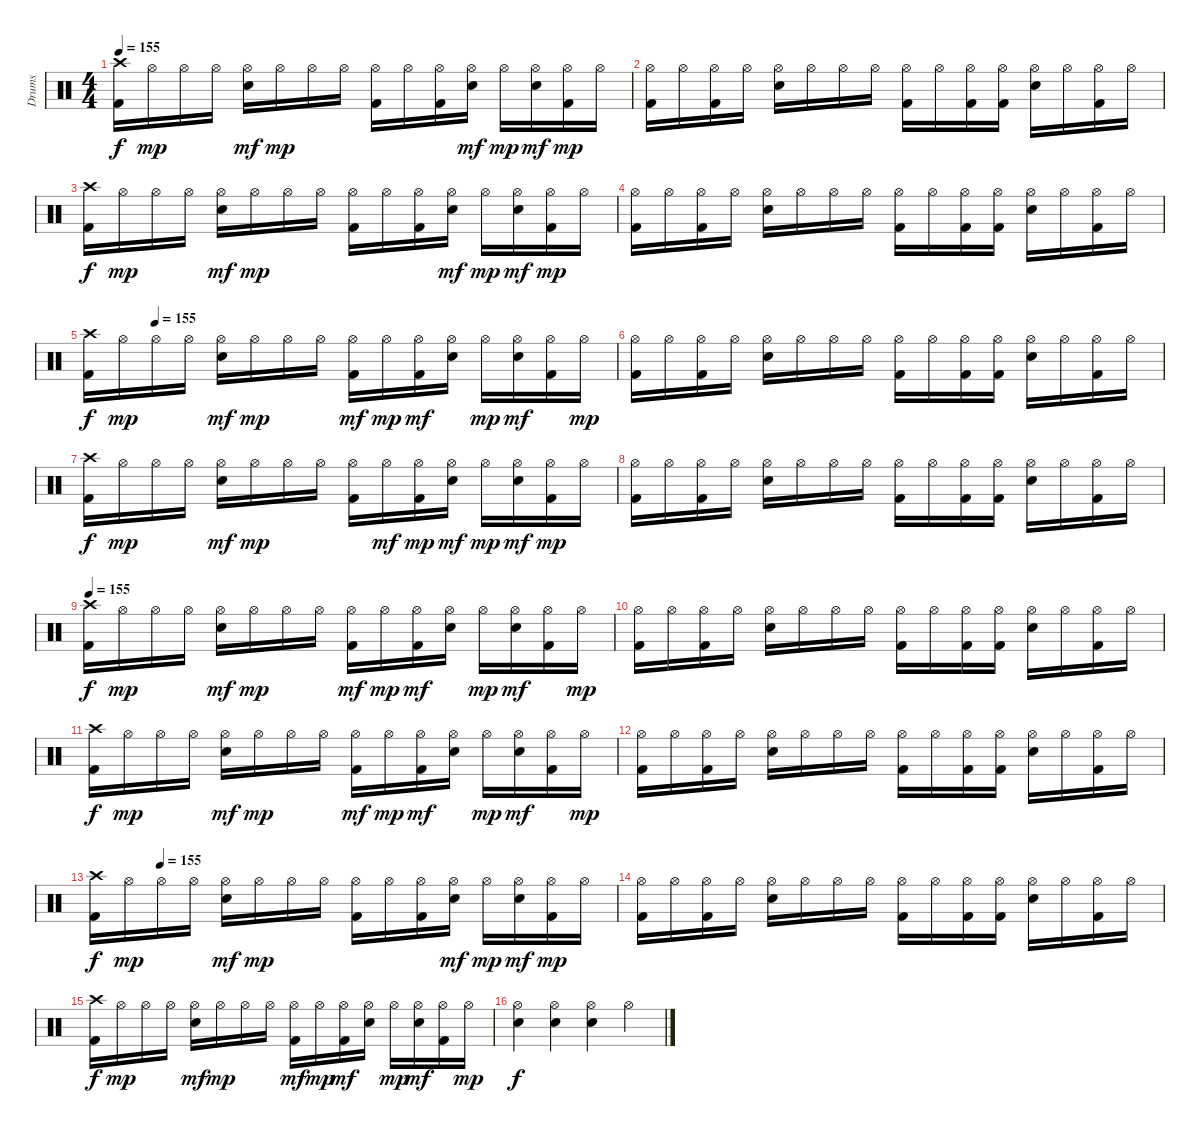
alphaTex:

\track ("Drums" "Drums") {instrument percussion}
\staff {score}
\articulation defaults
\ts (4 4)
\tempo 155
\clef neutral
\ks c
("Crash high (hit)" "Kick (hit) 2").16{dy f} "Hi-Hat (open)".16{dy mp} "Hi-Hat (open)".16 "Hi-Hat (open)".16 ("Hi-Hat (open)" "Electric Snare (hit)").16{dy mf} "Hi-Hat (open)".16{dy mp} "Hi-Hat (open)".16 "Hi-Hat (open)".16 ("Hi-Hat (open)" "Kick (hit) 2").16 "Hi-Hat (open)".16 ("Hi-Hat (open)" "Kick (hit) 2").16 ("Hi-Hat (open)" "Electric Snare (hit)").16{dy mf} "Hi-Hat (open)".16{dy mp} ("Hi-Hat (open)" "Electric Snare (hit)").16{dy mf} ("Hi-Hat (open)" "Kick (hit) 2").16{dy mp} "Hi-Hat (open)".16 |
("Hi-Hat (open)" "Kick (hit) 2").16 "Hi-Hat (open)".16 ("Hi-Hat (open)" "Kick (hit) 2").16 "Hi-Hat (open)".16 ("Hi-Hat (open)" "Electric Snare (hit)").16 "Hi-Hat (open)".16 "Hi-Hat (open)".16 "Hi-Hat (open)".16 ("Hi-Hat (open)" "Kick (hit) 2").16 "Hi-Hat (open)".16 ("Hi-Hat (open)" "Kick (hit) 2").16 ("Hi-Hat (open)" "Kick (hit) 2").16 ("Hi-Hat (open)" "Electric Snare (hit)").16 "Hi-Hat (open)".16 ("Hi-Hat (open)" "Kick (hit) 2").16 "Hi-Hat (open)".16 |
("Crash high (hit)" "Kick (hit) 2").16{dy f} "Hi-Hat (open)".16{dy mp} "Hi-Hat (open)".16 "Hi-Hat (open)".16 ("Hi-Hat (open)" "Electric Snare (hit)").16{dy mf} "Hi-Hat (open)".16{dy mp} "Hi-Hat (open)".16 "Hi-Hat (open)".16 ("Hi-Hat (open)" "Kick (hit) 2").16 "Hi-Hat (open)".16 ("Hi-Hat (open)" "Kick (hit) 2").16 ("Hi-Hat (open)" "Electric Snare (hit)").16{dy mf} "Hi-Hat (open)".16{dy mp} ("Hi-Hat (open)" "Electric Snare (hit)").16{dy mf} ("Hi-Hat (open)" "Kick (hit) 2").16{dy mp} "Hi-Hat (open)".16 |
("Hi-Hat (open)" "Kick (hit) 2").16 "Hi-Hat (open)".16 ("Hi-Hat (open)" "Kick (hit) 2").16 "Hi-Hat (open)".16 ("Hi-Hat (open)" "Electric Snare (hit)").16 "Hi-Hat (open)".16 "Hi-Hat (open)".16 "Hi-Hat (open)".16 ("Hi-Hat (open)" "Kick (hit) 2").16 "Hi-Hat (open)".16 ("Hi-Hat (open)" "Kick (hit) 2").16 ("Hi-Hat (open)" "Kick (hit) 2").16 ("Hi-Hat (open)" "Electric Snare (hit)").16 "Hi-Hat (open)".16 ("Hi-Hat (open)" "Kick (hit) 2").16 "Hi-Hat (open)".16 |
\tempo (155 0.125)
("Crash high (hit)" "Kick (hit) 2").16{dy f} "Hi-Hat (open)".16{dy mp} "Hi-Hat (open)".16 "Hi-Hat (open)".16 ("Hi-Hat (open)" "Electric Snare (hit)").16{dy mf} "Hi-Hat (open)".16{dy mp} "Hi-Hat (open)".16 "Hi-Hat (open)".16 ("Hi-Hat (open)" "Kick (hit) 2").16{dy mf} "Hi-Hat (open)".16{dy mp} ("Hi-Hat (open)" "Kick (hit) 2").16{dy mf} ("Hi-Hat (open)" "Electric Snare (hit)").16 "Hi-Hat (open)".16{dy mp} ("Hi-Hat (open)" "Electric Snare (hit)").16{dy mf} ("Hi-Hat (open)" "Kick (hit) 2").16 "Hi-Hat (open)".16{dy mp} |
("Hi-Hat (open)" "Kick (hit) 2").16 "Hi-Hat (open)".16 ("Hi-Hat (open)" "Kick (hit) 2").16 "Hi-Hat (open)".16 ("Hi-Hat (open)" "Electric Snare (hit)").16 "Hi-Hat (open)".16 "Hi-Hat (open)".16 "Hi-Hat (open)".16 ("Hi-Hat (open)" "Kick (hit) 2").16 "Hi-Hat (open)".16 ("Hi-Hat (open)" "Kick (hit) 2").16 ("Hi-Hat (open)" "Kick (hit) 2").16 ("Hi-Hat (open)" "Electric Snare (hit)").16 "Hi-Hat (open)".16 ("Hi-Hat (open)" "Kick (hit) 2").16 "Hi-Hat (open)".16 |
("Crash high (hit)" "Kick (hit) 2").16{dy f} "Hi-Hat (open)".16{dy mp} "Hi-Hat (open)".16 "Hi-Hat (open)".16 ("Hi-Hat (open)" "Electric Snare (hit)").16{dy mf} "Hi-Hat (open)".16{dy mp} "Hi-Hat (open)".16 "Hi-Hat (open)".16 ("Hi-Hat (open)" "Kick (hit) 2").16 "Hi-Hat (open)".16{dy mf} ("Hi-Hat (open)" "Kick (hit) 2").16{dy mp} ("Hi-Hat (open)" "Electric Snare (hit)").16{dy mf} "Hi-Hat (open)".16{dy mp} ("Hi-Hat (open)" "Electric Snare (hit)").16{dy mf} ("Hi-Hat (open)" "Kick (hit) 2").16{dy mp} "Hi-Hat (open)".16 |
("Hi-Hat (open)" "Kick (hit) 2").16 "Hi-Hat (open)".16 ("Hi-Hat (open)" "Kick (hit) 2").16 "Hi-Hat (open)".16 ("Hi-Hat (open)" "Electric Snare (hit)").16 "Hi-Hat (open)".16 "Hi-Hat (open)".16 "Hi-Hat (open)".16 ("Hi-Hat (open)" "Kick (hit) 2").16 "Hi-Hat (open)".16 ("Hi-Hat (open)" "Kick (hit) 2").16 ("Hi-Hat (open)" "Kick (hit) 2").16 ("Hi-Hat (open)" "Electric Snare (hit)").16 "Hi-Hat (open)".16 ("Hi-Hat (open)" "Kick (hit) 2").16 "Hi-Hat (open)".16 |
\tempo 155
("Crash high (hit)" "Kick (hit) 2").16{dy f} "Hi-Hat (open)".16{dy mp} "Hi-Hat (open)".16 "Hi-Hat (open)".16 ("Hi-Hat (open)" "Electric Snare (hit)").16{dy mf} "Hi-Hat (open)".16{dy mp} "Hi-Hat (open)".16 "Hi-Hat (open)".16 ("Hi-Hat (open)" "Kick (hit) 2").16{dy mf} "Hi-Hat (open)".16{dy mp} ("Hi-Hat (open)" "Kick (hit) 2").16{dy mf} ("Hi-Hat (open)" "Electric Snare (hit)").16 "Hi-Hat (open)".16{dy mp} ("Hi-Hat (open)" "Electric Snare (hit)").16{dy mf} ("Hi-Hat (open)" "Kick (hit) 2").16 "Hi-Hat (open)".16{dy mp} |
("Hi-Hat (open)" "Kick (hit) 2").16 "Hi-Hat (open)".16 ("Hi-Hat (open)" "Kick (hit) 2").16 "Hi-Hat (open)".16 ("Hi-Hat (open)" "Electric Snare (hit)").16 "Hi-Hat (open)".16 "Hi-Hat (open)".16 "Hi-Hat (open)".16 ("Hi-Hat (open)" "Kick (hit) 2").16 "Hi-Hat (open)".16 ("Hi-Hat (open)" "Kick (hit) 2").16 ("Hi-Hat (open)" "Kick (hit) 2").16 ("Hi-Hat (open)" "Electric Snare (hit)").16 "Hi-Hat (open)".16 ("Hi-Hat (open)" "Kick (hit) 2").16 "Hi-Hat (open)".16 |
("Crash high (hit)" "Kick (hit) 2").16{dy f} "Hi-Hat (open)".16{dy mp} "Hi-Hat (open)".16 "Hi-Hat (open)".16 ("Hi-Hat (open)" "Electric Snare (hit)").16{dy mf} "Hi-Hat (open)".16{dy mp} "Hi-Hat (open)".16 "Hi-Hat (open)".16 ("Hi-Hat (open)" "Kick (hit) 2").16{dy mf} "Hi-Hat (open)".16{dy mp} ("Hi-Hat (open)" "Kick (hit) 2").16{dy mf} ("Hi-Hat (open)" "Electric Snare (hit)").16 "Hi-Hat (open)".16{dy mp} ("Hi-Hat (open)" "Electric Snare (hit)").16{dy mf} ("Hi-Hat (open)" "Kick (hit) 2").16 "Hi-Hat (open)".16{dy mp} |
("Hi-Hat (open)" "Kick (hit) 2").16 "Hi-Hat (open)".16 ("Hi-Hat (open)" "Kick (hit) 2").16 "Hi-Hat (open)".16 ("Hi-Hat (open)" "Electric Snare (hit)").16 "Hi-Hat (open)".16 "Hi-Hat (open)".16 "Hi-Hat (open)".16 ("Hi-Hat (open)" "Kick (hit) 2").16 "Hi-Hat (open)".16 ("Hi-Hat (open)" "Kick (hit) 2").16 ("Hi-Hat (open)" "Kick (hit) 2").16 ("Hi-Hat (open)" "Electric Snare (hit)").16 "Hi-Hat (open)".16 ("Hi-Hat (open)" "Kick (hit) 2").16 "Hi-Hat (open)".16 |
\tempo (155 0.125)
("Crash high (hit)" "Kick (hit) 2").16{dy f} "Hi-Hat (open)".16{dy mp} "Hi-Hat (open)".16 "Hi-Hat (open)".16 ("Hi-Hat (open)" "Electric Snare (hit)").16{dy mf} "Hi-Hat (open)".16{dy mp} "Hi-Hat (open)".16 "Hi-Hat (open)".16 ("Hi-Hat (open)" "Kick (hit) 2").16 "Hi-Hat (open)".16 ("Hi-Hat (open)" "Kick (hit) 2").16 ("Hi-Hat (open)" "Electric Snare (hit)").16{dy mf} "Hi-Hat (open)".16{dy mp} ("Hi-Hat (open)" "Electric Snare (hit)").16{dy mf} ("Hi-Hat (open)" "Kick (hit) 2").16{dy mp} "Hi-Hat (open)".16 |
("Hi-Hat (open)" "Kick (hit) 2").16 "Hi-Hat (open)".16 ("Hi-Hat (open)" "Kick (hit) 2").16 "Hi-Hat (open)".16 ("Hi-Hat (open)" "Electric Snare (hit)").16 "Hi-Hat (open)".16 "Hi-Hat (open)".16 "Hi-Hat (open)".16 ("Hi-Hat (open)" "Kick (hit) 2").16 "Hi-Hat (open)".16 ("Hi-Hat (open)" "Kick (hit) 2").16 ("Hi-Hat (open)" "Kick (hit) 2").16 ("Hi-Hat (open)" "Electric Snare (hit)").16 "Hi-Hat (open)".16 ("Hi-Hat (open)" "Kick (hit) 2").16 "Hi-Hat (open)".16 |
("Crash high (hit)" "Kick (hit) 2").16{dy f} "Hi-Hat (open)".16{dy mp} "Hi-Hat (open)".16 "Hi-Hat (open)".16 ("Hi-Hat (open)" "Electric Snare (hit)").16{dy mf} "Hi-Hat (open)".16{dy mp} "Hi-Hat (open)".16 "Hi-Hat (open)".16 ("Hi-Hat (open)" "Kick (hit) 2").16{dy mf} "Hi-Hat (open)".16{dy mp} ("Hi-Hat (open)" "Kick (hit) 2").16{dy mf} ("Hi-Hat (open)" "Electric Snare (hit)").16 "Hi-Hat (open)".16{dy mp} ("Hi-Hat (open)" "Electric Snare (hit)").16{dy mf} ("Hi-Hat (open)" "Kick (hit) 2").16 "Hi-Hat (open)".16{dy mp} |
("Hi-Hat (open)" "Electric Snare (hit)").4{dy f} ("Hi-Hat (open)" "Electric Snare (hit)").4 ("Hi-Hat (open)" "Electric Snare (hit)").4 "Hi-Hat (open)".4
